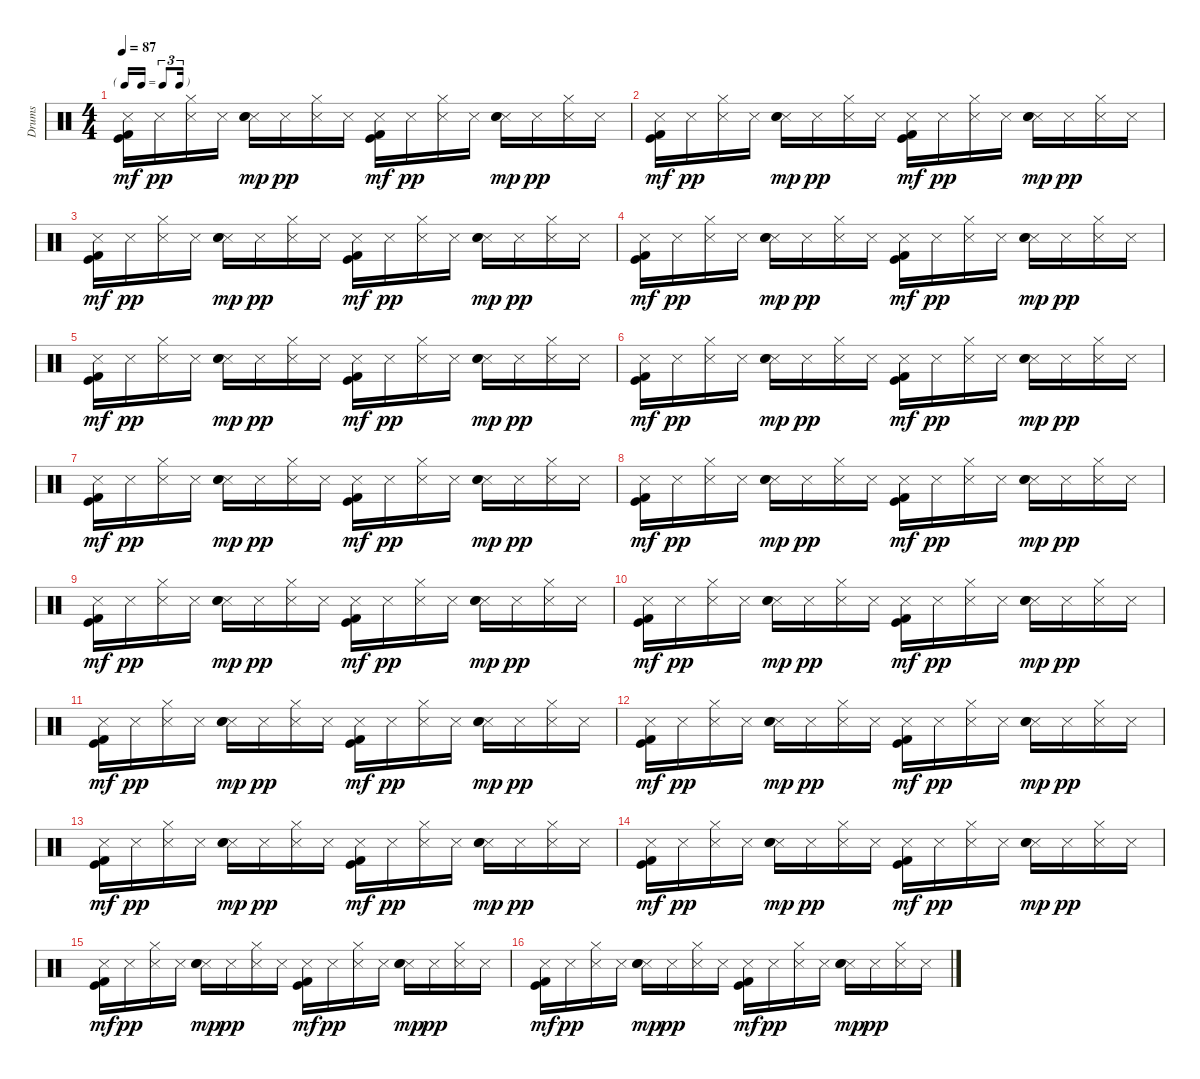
\track ("Drums" "Drums") {instrument percussion}
\staff {score}
\articulation defaults
\ts (4 4)
\tf triplet16th
\tempo 87
\clef neutral
\ks c
("Metronome (hit)" "Kick (hit)" "Kick (hit) 2").16{dy mf} "Metronome (hit)".16{dy pp} ("Hi-Hat (closed)" "Metronome (hit)").16 "Metronome (hit)".16 ("Metronome (hit)" "Electric Snare (hit)" "Snare (hit) 2").16{dy mp} "Metronome (hit)".16{dy pp} ("Hi-Hat (closed)" "Metronome (hit)").16 "Metronome (hit)".16 ("Metronome (hit)" "Kick (hit)" "Kick (hit) 2").16{dy mf} "Metronome (hit)".16{dy pp} ("Hi-Hat (closed)" "Metronome (hit)").16 "Metronome (hit)".16 ("Metronome (hit)" "Electric Snare (hit)" "Snare (hit) 2").16{dy mp} "Metronome (hit)".16{dy pp} ("Hi-Hat (closed)" "Metronome (hit)").16 "Metronome (hit)".16 |
("Metronome (hit)" "Kick (hit)" "Kick (hit) 2").16{dy mf} "Metronome (hit)".16{dy pp} ("Hi-Hat (closed)" "Metronome (hit)").16 "Metronome (hit)".16 ("Metronome (hit)" "Electric Snare (hit)" "Snare (hit) 2").16{dy mp} "Metronome (hit)".16{dy pp} ("Hi-Hat (closed)" "Metronome (hit)").16 "Metronome (hit)".16 ("Metronome (hit)" "Kick (hit)" "Kick (hit) 2").16{dy mf} "Metronome (hit)".16{dy pp} ("Hi-Hat (closed)" "Metronome (hit)").16 "Metronome (hit)".16 ("Metronome (hit)" "Electric Snare (hit)" "Snare (hit) 2").16{dy mp} "Metronome (hit)".16{dy pp} ("Hi-Hat (closed)" "Metronome (hit)").16 "Metronome (hit)".16 |
("Metronome (hit)" "Kick (hit)" "Kick (hit) 2").16{dy mf} "Metronome (hit)".16{dy pp} ("Hi-Hat (closed)" "Metronome (hit)").16 "Metronome (hit)".16 ("Metronome (hit)" "Electric Snare (hit)" "Snare (hit) 2").16{dy mp} "Metronome (hit)".16{dy pp} ("Hi-Hat (closed)" "Metronome (hit)").16 "Metronome (hit)".16 ("Metronome (hit)" "Kick (hit)" "Kick (hit) 2").16{dy mf} "Metronome (hit)".16{dy pp} ("Hi-Hat (closed)" "Metronome (hit)").16 "Metronome (hit)".16 ("Metronome (hit)" "Electric Snare (hit)" "Snare (hit) 2").16{dy mp} "Metronome (hit)".16{dy pp} ("Hi-Hat (closed)" "Metronome (hit)").16 "Metronome (hit)".16 |
("Metronome (hit)" "Kick (hit)" "Kick (hit) 2").16{dy mf} "Metronome (hit)".16{dy pp} ("Hi-Hat (closed)" "Metronome (hit)").16 "Metronome (hit)".16 ("Metronome (hit)" "Electric Snare (hit)" "Snare (hit) 2").16{dy mp} "Metronome (hit)".16{dy pp} ("Hi-Hat (closed)" "Metronome (hit)").16 "Metronome (hit)".16 ("Metronome (hit)" "Kick (hit)" "Kick (hit) 2").16{dy mf} "Metronome (hit)".16{dy pp} ("Hi-Hat (closed)" "Metronome (hit)").16 "Metronome (hit)".16 ("Metronome (hit)" "Electric Snare (hit)" "Snare (hit) 2").16{dy mp} "Metronome (hit)".16{dy pp} ("Hi-Hat (closed)" "Metronome (hit)").16 "Metronome (hit)".16 |
("Metronome (hit)" "Kick (hit)" "Kick (hit) 2").16{dy mf} "Metronome (hit)".16{dy pp} ("Hi-Hat (closed)" "Metronome (hit)").16 "Metronome (hit)".16 ("Metronome (hit)" "Electric Snare (hit)" "Snare (hit) 2").16{dy mp} "Metronome (hit)".16{dy pp} ("Hi-Hat (closed)" "Metronome (hit)").16 "Metronome (hit)".16 ("Metronome (hit)" "Kick (hit)" "Kick (hit) 2").16{dy mf} "Metronome (hit)".16{dy pp} ("Hi-Hat (closed)" "Metronome (hit)").16 "Metronome (hit)".16 ("Metronome (hit)" "Electric Snare (hit)" "Snare (hit) 2").16{dy mp} "Metronome (hit)".16{dy pp} ("Hi-Hat (closed)" "Metronome (hit)").16 "Metronome (hit)".16 |
("Metronome (hit)" "Kick (hit)" "Kick (hit) 2").16{dy mf} "Metronome (hit)".16{dy pp} ("Hi-Hat (closed)" "Metronome (hit)").16 "Metronome (hit)".16 ("Metronome (hit)" "Electric Snare (hit)" "Snare (hit) 2").16{dy mp} "Metronome (hit)".16{dy pp} ("Hi-Hat (closed)" "Metronome (hit)").16 "Metronome (hit)".16 ("Metronome (hit)" "Kick (hit)" "Kick (hit) 2").16{dy mf} "Metronome (hit)".16{dy pp} ("Hi-Hat (closed)" "Metronome (hit)").16 "Metronome (hit)".16 ("Metronome (hit)" "Electric Snare (hit)" "Snare (hit) 2").16{dy mp} "Metronome (hit)".16{dy pp} ("Hi-Hat (closed)" "Metronome (hit)").16 "Metronome (hit)".16 |
("Metronome (hit)" "Kick (hit)" "Kick (hit) 2").16{dy mf} "Metronome (hit)".16{dy pp} ("Hi-Hat (closed)" "Metronome (hit)").16 "Metronome (hit)".16 ("Metronome (hit)" "Electric Snare (hit)" "Snare (hit) 2").16{dy mp} "Metronome (hit)".16{dy pp} ("Hi-Hat (closed)" "Metronome (hit)").16 "Metronome (hit)".16 ("Metronome (hit)" "Kick (hit)" "Kick (hit) 2").16{dy mf} "Metronome (hit)".16{dy pp} ("Hi-Hat (closed)" "Metronome (hit)").16 "Metronome (hit)".16 ("Metronome (hit)" "Electric Snare (hit)" "Snare (hit) 2").16{dy mp} "Metronome (hit)".16{dy pp} ("Hi-Hat (closed)" "Metronome (hit)").16 "Metronome (hit)".16 |
("Metronome (hit)" "Kick (hit)" "Kick (hit) 2").16{dy mf} "Metronome (hit)".16{dy pp} ("Hi-Hat (closed)" "Metronome (hit)").16 "Metronome (hit)".16 ("Metronome (hit)" "Electric Snare (hit)" "Snare (hit) 2").16{dy mp} "Metronome (hit)".16{dy pp} ("Hi-Hat (closed)" "Metronome (hit)").16 "Metronome (hit)".16 ("Metronome (hit)" "Kick (hit)" "Kick (hit) 2").16{dy mf} "Metronome (hit)".16{dy pp} ("Hi-Hat (closed)" "Metronome (hit)").16 "Metronome (hit)".16 ("Metronome (hit)" "Electric Snare (hit)" "Snare (hit) 2").16{dy mp} "Metronome (hit)".16{dy pp} ("Hi-Hat (closed)" "Metronome (hit)").16 "Metronome (hit)".16 |
("Metronome (hit)" "Kick (hit)" "Kick (hit) 2").16{dy mf} "Metronome (hit)".16{dy pp} ("Hi-Hat (closed)" "Metronome (hit)").16 "Metronome (hit)".16 ("Metronome (hit)" "Electric Snare (hit)" "Snare (hit) 2").16{dy mp} "Metronome (hit)".16{dy pp} ("Hi-Hat (closed)" "Metronome (hit)").16 "Metronome (hit)".16 ("Metronome (hit)" "Kick (hit)" "Kick (hit) 2").16{dy mf} "Metronome (hit)".16{dy pp} ("Hi-Hat (closed)" "Metronome (hit)").16 "Metronome (hit)".16 ("Metronome (hit)" "Electric Snare (hit)" "Snare (hit) 2").16{dy mp} "Metronome (hit)".16{dy pp} ("Hi-Hat (closed)" "Metronome (hit)").16 "Metronome (hit)".16 |
("Metronome (hit)" "Kick (hit)" "Kick (hit) 2").16{dy mf} "Metronome (hit)".16{dy pp} ("Hi-Hat (closed)" "Metronome (hit)").16 "Metronome (hit)".16 ("Metronome (hit)" "Electric Snare (hit)" "Snare (hit) 2").16{dy mp} "Metronome (hit)".16{dy pp} ("Hi-Hat (closed)" "Metronome (hit)").16 "Metronome (hit)".16 ("Metronome (hit)" "Kick (hit)" "Kick (hit) 2").16{dy mf} "Metronome (hit)".16{dy pp} ("Hi-Hat (closed)" "Metronome (hit)").16 "Metronome (hit)".16 ("Metronome (hit)" "Electric Snare (hit)" "Snare (hit) 2").16{dy mp} "Metronome (hit)".16{dy pp} ("Hi-Hat (closed)" "Metronome (hit)").16 "Metronome (hit)".16 |
("Metronome (hit)" "Kick (hit)" "Kick (hit) 2").16{dy mf} "Metronome (hit)".16{dy pp} ("Hi-Hat (closed)" "Metronome (hit)").16 "Metronome (hit)".16 ("Metronome (hit)" "Electric Snare (hit)" "Snare (hit) 2").16{dy mp} "Metronome (hit)".16{dy pp} ("Hi-Hat (closed)" "Metronome (hit)").16 "Metronome (hit)".16 ("Metronome (hit)" "Kick (hit)" "Kick (hit) 2").16{dy mf} "Metronome (hit)".16{dy pp} ("Hi-Hat (closed)" "Metronome (hit)").16 "Metronome (hit)".16 ("Metronome (hit)" "Electric Snare (hit)" "Snare (hit) 2").16{dy mp} "Metronome (hit)".16{dy pp} ("Hi-Hat (closed)" "Metronome (hit)").16 "Metronome (hit)".16 |
("Metronome (hit)" "Kick (hit)" "Kick (hit) 2").16{dy mf} "Metronome (hit)".16{dy pp} ("Hi-Hat (closed)" "Metronome (hit)").16 "Metronome (hit)".16 ("Metronome (hit)" "Electric Snare (hit)" "Snare (hit) 2").16{dy mp} "Metronome (hit)".16{dy pp} ("Hi-Hat (closed)" "Metronome (hit)").16 "Metronome (hit)".16 ("Metronome (hit)" "Kick (hit)" "Kick (hit) 2").16{dy mf} "Metronome (hit)".16{dy pp} ("Hi-Hat (closed)" "Metronome (hit)").16 "Metronome (hit)".16 ("Metronome (hit)" "Electric Snare (hit)" "Snare (hit) 2").16{dy mp} "Metronome (hit)".16{dy pp} ("Hi-Hat (closed)" "Metronome (hit)").16 "Metronome (hit)".16 |
("Metronome (hit)" "Kick (hit)" "Kick (hit) 2").16{dy mf} "Metronome (hit)".16{dy pp} ("Hi-Hat (closed)" "Metronome (hit)").16 "Metronome (hit)".16 ("Metronome (hit)" "Electric Snare (hit)" "Snare (hit) 2").16{dy mp} "Metronome (hit)".16{dy pp} ("Hi-Hat (closed)" "Metronome (hit)").16 "Metronome (hit)".16 ("Metronome (hit)" "Kick (hit)" "Kick (hit) 2").16{dy mf} "Metronome (hit)".16{dy pp} ("Hi-Hat (closed)" "Metronome (hit)").16 "Metronome (hit)".16 ("Metronome (hit)" "Electric Snare (hit)" "Snare (hit) 2").16{dy mp} "Metronome (hit)".16{dy pp} ("Hi-Hat (closed)" "Metronome (hit)").16 "Metronome (hit)".16 |
("Metronome (hit)" "Kick (hit)" "Kick (hit) 2").16{dy mf} "Metronome (hit)".16{dy pp} ("Hi-Hat (closed)" "Metronome (hit)").16 "Metronome (hit)".16 ("Metronome (hit)" "Electric Snare (hit)" "Snare (hit) 2").16{dy mp} "Metronome (hit)".16{dy pp} ("Hi-Hat (closed)" "Metronome (hit)").16 "Metronome (hit)".16 ("Metronome (hit)" "Kick (hit)" "Kick (hit) 2").16{dy mf} "Metronome (hit)".16{dy pp} ("Hi-Hat (closed)" "Metronome (hit)").16 "Metronome (hit)".16 ("Metronome (hit)" "Electric Snare (hit)" "Snare (hit) 2").16{dy mp} "Metronome (hit)".16{dy pp} ("Hi-Hat (closed)" "Metronome (hit)").16 "Metronome (hit)".16 |
("Metronome (hit)" "Kick (hit)" "Kick (hit) 2").16{dy mf} "Metronome (hit)".16{dy pp} ("Hi-Hat (closed)" "Metronome (hit)").16 "Metronome (hit)".16 ("Metronome (hit)" "Electric Snare (hit)" "Snare (hit) 2").16{dy mp} "Metronome (hit)".16{dy pp} ("Hi-Hat (closed)" "Metronome (hit)").16 "Metronome (hit)".16 ("Metronome (hit)" "Kick (hit)" "Kick (hit) 2").16{dy mf} "Metronome (hit)".16{dy pp} ("Hi-Hat (closed)" "Metronome (hit)").16 "Metronome (hit)".16 ("Metronome (hit)" "Electric Snare (hit)" "Snare (hit) 2").16{dy mp} "Metronome (hit)".16{dy pp} ("Hi-Hat (closed)" "Metronome (hit)").16 "Metronome (hit)".16 |
("Metronome (hit)" "Kick (hit)" "Kick (hit) 2").16{dy mf} "Metronome (hit)".16{dy pp} ("Hi-Hat (closed)" "Metronome (hit)").16 "Metronome (hit)".16 ("Metronome (hit)" "Electric Snare (hit)" "Snare (hit) 2").16{dy mp} "Metronome (hit)".16{dy pp} ("Hi-Hat (closed)" "Metronome (hit)").16 "Metronome (hit)".16 ("Metronome (hit)" "Kick (hit)" "Kick (hit) 2").16{dy mf} "Metronome (hit)".16{dy pp} ("Hi-Hat (closed)" "Metronome (hit)").16 "Metronome (hit)".16 ("Metronome (hit)" "Electric Snare (hit)" "Snare (hit) 2").16{dy mp} "Metronome (hit)".16{dy pp} ("Hi-Hat (closed)" "Metronome (hit)").16 "Metronome (hit)".16
